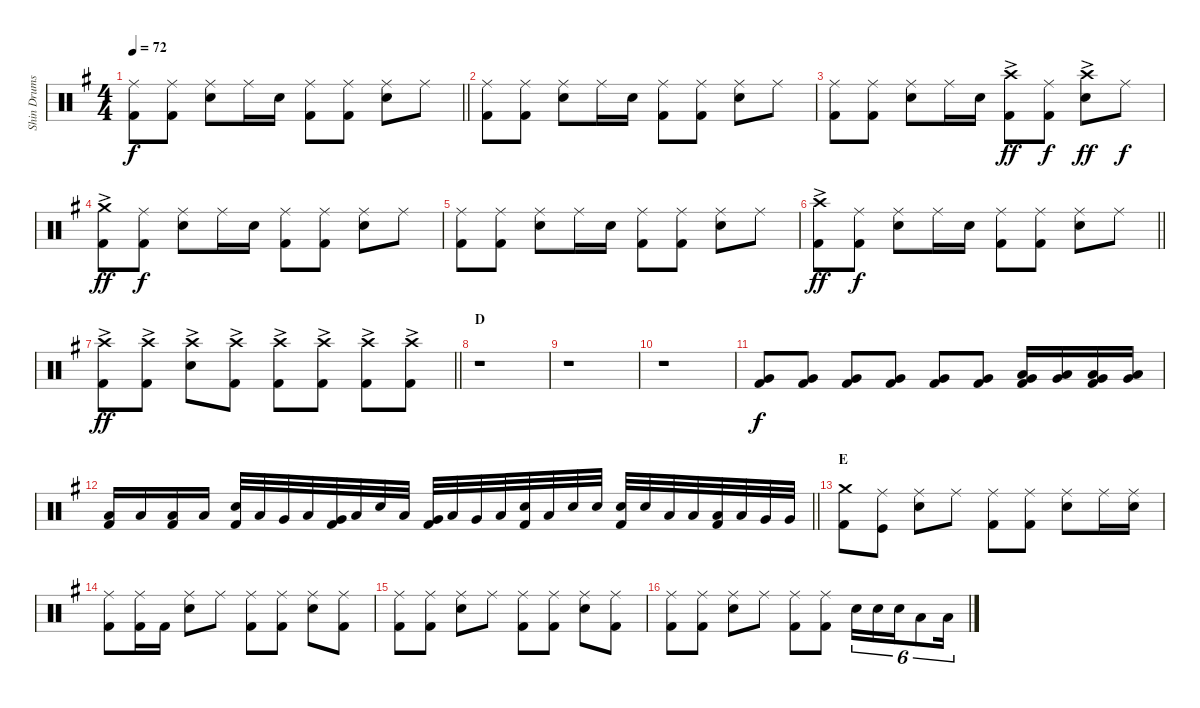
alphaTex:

\track ("Shin Drums" "Shin Drums") {instrument percussion}
\staff {score}
\articulation defaults
\ts (4 4)
\section ("" "")
\tempo 72
\clef neutral
\barLineRight lightlight
\ks g
("Ride (middle)" "Kick (hit) 2").8{dy f} ("Ride (middle)" "Kick (hit) 2").8 ("Ride (middle)" "Snare (hit) 2").8 "Ride (middle)".16 "Snare (hit) 2".16 ("Ride (middle)" "Kick (hit) 2").8 ("Ride (middle)" "Kick (hit) 2").8 ("Ride (middle)" "Snare (hit) 2").8 "Ride (middle)".8 |
\section ("" "")
("Ride (middle)" "Kick (hit) 2").8 ("Ride (middle)" "Kick (hit) 2").8 ("Ride (middle)" "Snare (hit) 2").8 "Ride (middle)".16 "Snare (hit) 2".16 ("Ride (middle)" "Kick (hit) 2").8 ("Ride (middle)" "Kick (hit) 2").8 ("Ride (middle)" "Snare (hit) 2").8 "Ride (middle)".8 |
("Ride (middle)" "Kick (hit) 2").8 ("Ride (middle)" "Kick (hit) 2").8 ("Ride (middle)" "Snare (hit) 2").8 "Ride (middle)".16 "Snare (hit) 2".16 ("Crash high (hit)"{ac} "Kick (hit) 2"{ac}).8{dy ff} ("Ride (middle)" "Kick (hit) 2").8{dy f} ("Crash high (hit)"{ac} "Snare (hit) 2").8{dy ff} "Ride (middle)".8{dy f} |
("Crash medium (hit)"{ac} "Kick (hit) 2"{ac}).8{dy ff} ("Ride (middle)" "Kick (hit) 2").8{dy f} ("Ride (middle)" "Snare (hit) 2").8 "Ride (middle)".16 "Snare (hit) 2".16 ("Ride (middle)" "Kick (hit) 2").8 ("Ride (middle)" "Kick (hit) 2").8 ("Ride (middle)" "Snare (hit) 2").8 "Ride (middle)".8 |
("Ride (middle)" "Kick (hit) 2").8 ("Ride (middle)" "Kick (hit) 2").8 ("Ride (middle)" "Snare (hit) 2").8 "Ride (middle)".16 "Snare (hit) 2".16 ("Ride (middle)" "Kick (hit) 2").8 ("Ride (middle)" "Kick (hit) 2").8 ("Ride (middle)" "Snare (hit) 2").8 "Ride (middle)".8 |
\barLineRight lightlight
("Crash high (hit)"{ac} "Kick (hit) 2"{ac}).8{dy ff} ("Ride (middle)" "Kick (hit) 2").8{dy f} ("Ride (middle)" "Snare (hit) 2").8 "Ride (middle)".16 "Snare (hit) 2".16 ("Ride (middle)" "Kick (hit) 2").8 ("Ride (middle)" "Kick (hit) 2").8 ("Ride (middle)" "Snare (hit) 2").8 "Ride (middle)".8 |
\section ("" "")
\barLineRight lightlight
("Crash high (hit)"{ac} "Kick (hit) 2").8{dy ff} ("Crash high (hit)"{ac} "Kick (hit) 2").8 ("Crash high (hit)"{ac} "Snare (hit) 2").8 ("Crash high (hit)"{ac} "Kick (hit) 2").8 ("Crash high (hit)"{ac} "Kick (hit) 2").8 ("Crash high (hit)"{ac} "Kick (hit) 2").8 ("Crash high (hit)"{ac} "Kick (hit) 2").8 ("Crash high (hit)"{ac} "Kick (hit) 2").8 |
\section ("" "D")
r.1 |
r.1 |
r.1 |
("Very Low Tom (hit)" "Kick (hit) 2").8{dy f} ("Very Low Tom (hit)" "Kick (hit) 2").8 ("Very Low Tom (hit)" "Kick (hit) 2").8 ("Very Low Tom (hit)" "Kick (hit) 2").8 ("Very Low Tom (hit)" "Kick (hit) 2").8 ("Very Low Tom (hit)" "Kick (hit) 2").8 ("Low Tom (hit)" "Very Low Tom (hit)" "Kick (hit) 2").16 ("Low Tom (hit)" "Very Low Tom (hit)").16 ("Low Tom (hit)" "Very Low Tom (hit)" "Kick (hit) 2").16 ("Low Tom (hit)" "Very Low Tom (hit)").16 |
\barLineRight lightlight
("Low Tom (hit)" "Kick (hit) 2").16 "Low Tom (hit)".16 ("Low Tom (hit)" "Kick (hit) 2").16 "Low Tom (hit)".16 ("Snare (hit) 2" "Kick (hit) 2").32 "Low Tom (hit)".32 "Very Low Tom (hit)".32 "Low Tom (hit)".32 ("Very Low Tom (hit)" "Kick (hit) 2").32 "Low Tom (hit)".32 "Snare (hit) 2".32 "Low Tom (hit)".32 ("Very Low Tom (hit)" "Kick (hit) 2").32 "Low Tom (hit)".32 "Very Low Tom (hit)".32 "Low Tom (hit)".32 ("Snare (hit) 2" "Kick (hit) 2").32 "Low Tom (hit)".32 "Snare (hit) 2".32 "Snare (hit) 2".32 ("Snare (hit) 2" "Kick (hit) 2").32 "Snare (hit) 2".32 "Low Tom (hit)".32 "Low Tom (hit)".32 ("Low Tom (hit)" "Kick (hit) 2").32 "Low Tom (hit)".32 "Very Low Tom (hit)".32 "Very Low Tom (hit)".32 |
\section ("" "E")
("Crash medium (hit)" "Kick (hit) 2").8 ("Ride (middle)" "Kick (hit)").8 ("Ride (middle)" "Snare (hit) 2").8 "Ride (middle)".8 ("Ride (middle)" "Kick (hit) 2").8 ("Ride (middle)" "Kick (hit) 2").8 ("Ride (middle)" "Snare (hit) 2").8 "Ride (middle)".16 ("Ride (middle)" "Snare (hit) 2").16 |
("Ride (middle)" "Kick (hit) 2").8 ("Ride (middle)" "Kick (hit) 2").16 "Kick (hit) 2".16 ("Ride (middle)" "Snare (hit) 2").8 "Ride (middle)".8 ("Ride (middle)" "Kick (hit) 2").8 ("Ride (middle)" "Kick (hit) 2").8 ("Ride (middle)" "Snare (hit) 2").8 ("Ride (middle)" "Kick (hit) 2").8 |
("Ride (middle)" "Kick (hit) 2").8 ("Ride (middle)" "Kick (hit) 2").8 ("Ride (middle)" "Snare (hit) 2").8 "Ride (middle)".8 ("Ride (middle)" "Kick (hit) 2").8 ("Ride (middle)" "Kick (hit) 2").8 ("Ride (middle)" "Snare (hit) 2").8 ("Ride (middle)" "Kick (hit) 2").8 |
("Ride (middle)" "Kick (hit) 2").8 ("Ride (middle)" "Kick (hit) 2").8 ("Ride (middle)" "Snare (hit) 2").8 "Ride (middle)".8 ("Ride (middle)" "Kick (hit) 2").8 ("Ride (middle)" "Kick (hit) 2").8 "Snare (hit) 2".16{tu (6 4)} "Snare (hit) 2".16{tu (6 4)} "Snare (hit) 2".16{tu (6 4)} "Low Tom (hit)".8{tu (6 4)} "Low Tom (hit)".16{tu (6 4)}
